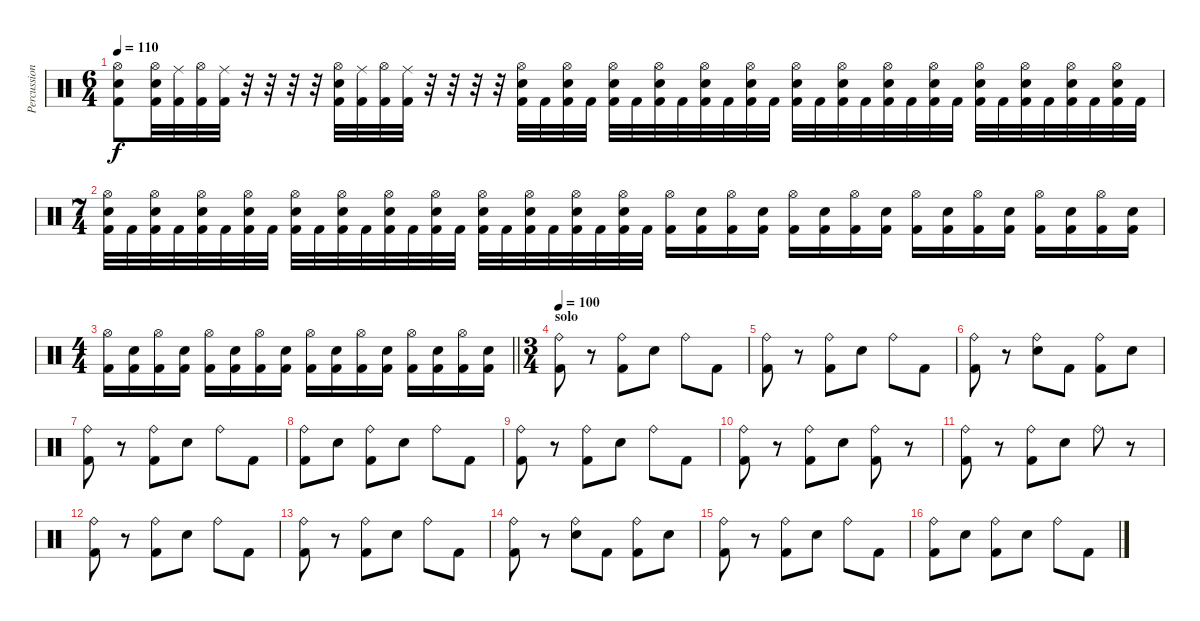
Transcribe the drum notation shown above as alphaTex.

\track ("Percussion" "Percussion") {instrument percussion}
\staff {score}
\articulation defaults
\ts (6 4)
\tempo 110
\clef neutral
\ks c
("Hi-Hat (open)" "Electric Snare (hit)" "Kick (hit) 2").8{dy f} ("Hi-Hat (open)" "Electric Snare (hit)" "Kick (hit) 2").32 ("Ride (middle)" "Kick (hit) 2").32 ("Hi-Hat (open)" "Kick (hit) 2").32 ("Ride (middle)" "Kick (hit) 2").32 r.32 r.32 r.32 r.32 ("Hi-Hat (open)" "Electric Snare (hit)" "Kick (hit) 2").32 ("Ride (middle)" "Kick (hit) 2").32 ("Hi-Hat (open)" "Kick (hit) 2").32 ("Ride (middle)" "Kick (hit) 2").32 r.32 r.32 r.32 r.32 ("Hi-Hat (open)" "Electric Snare (hit)" "Kick (hit) 2").32 "Kick (hit) 2".32 ("Hi-Hat (open)" "Electric Snare (hit)" "Kick (hit) 2").32 "Kick (hit) 2".32 ("Hi-Hat (open)" "Electric Snare (hit)" "Kick (hit) 2").32 "Kick (hit) 2".32 ("Hi-Hat (open)" "Electric Snare (hit)" "Kick (hit) 2").32 "Kick (hit) 2".32 ("Hi-Hat (open)" "Electric Snare (hit)" "Kick (hit) 2").32 "Kick (hit) 2".32 ("Hi-Hat (open)" "Electric Snare (hit)" "Kick (hit) 2").32 "Kick (hit) 2".32 ("Hi-Hat (open)" "Electric Snare (hit)" "Kick (hit) 2").32 "Kick (hit) 2".32 ("Hi-Hat (open)" "Electric Snare (hit)" "Kick (hit) 2").32 "Kick (hit) 2".32 ("Hi-Hat (open)" "Electric Snare (hit)" "Kick (hit) 2").32 "Kick (hit) 2".32 ("Hi-Hat (open)" "Electric Snare (hit)" "Kick (hit) 2").32 "Kick (hit) 2".32 ("Hi-Hat (open)" "Electric Snare (hit)" "Kick (hit) 2").32 "Kick (hit) 2".32 ("Hi-Hat (open)" "Electric Snare (hit)" "Kick (hit) 2").32 "Kick (hit) 2".32 ("Hi-Hat (open)" "Electric Snare (hit)" "Kick (hit) 2").32 "Kick (hit) 2".32 ("Hi-Hat (open)" "Electric Snare (hit)" "Kick (hit) 2").32 "Kick (hit) 2".32 |
\ts (7 4)
("Hi-Hat (open)" "Electric Snare (hit)" "Kick (hit) 2").32 "Kick (hit) 2".32 ("Hi-Hat (open)" "Electric Snare (hit)" "Kick (hit) 2").32 "Kick (hit) 2".32 ("Hi-Hat (open)" "Electric Snare (hit)" "Kick (hit) 2").32 "Kick (hit) 2".32 ("Hi-Hat (open)" "Electric Snare (hit)" "Kick (hit) 2").32 "Kick (hit) 2".32 ("Hi-Hat (open)" "Electric Snare (hit)" "Kick (hit) 2").32 "Kick (hit) 2".32 ("Hi-Hat (open)" "Electric Snare (hit)" "Kick (hit) 2").32 "Kick (hit) 2".32 ("Hi-Hat (open)" "Electric Snare (hit)" "Kick (hit) 2").32 "Kick (hit) 2".32 ("Hi-Hat (open)" "Electric Snare (hit)" "Kick (hit) 2").32 "Kick (hit) 2".32 ("Hi-Hat (open)" "Electric Snare (hit)" "Kick (hit) 2").32 "Kick (hit) 2".32 ("Hi-Hat (open)" "Electric Snare (hit)" "Kick (hit) 2").32 "Kick (hit) 2".32 ("Hi-Hat (open)" "Electric Snare (hit)" "Kick (hit) 2").32 "Kick (hit) 2".32 ("Hi-Hat (open)" "Electric Snare (hit)" "Kick (hit) 2").32 "Kick (hit) 2".32 ("Hi-Hat (open)" "Kick (hit) 2").16 ("Electric Snare (hit)" "Kick (hit) 2").16 ("Hi-Hat (open)" "Kick (hit) 2").16 ("Electric Snare (hit)" "Kick (hit) 2").16 ("Hi-Hat (open)" "Kick (hit) 2").16 ("Electric Snare (hit)" "Kick (hit) 2").16 ("Hi-Hat (open)" "Kick (hit) 2").16 ("Electric Snare (hit)" "Kick (hit) 2").16 ("Hi-Hat (open)" "Kick (hit) 2").16 ("Electric Snare (hit)" "Kick (hit) 2").16 ("Hi-Hat (open)" "Kick (hit) 2").16 ("Electric Snare (hit)" "Kick (hit) 2").16 ("Hi-Hat (open)" "Kick (hit) 2").16 ("Electric Snare (hit)" "Kick (hit) 2").16 ("Hi-Hat (open)" "Kick (hit) 2").16 ("Electric Snare (hit)" "Kick (hit) 2").16 |
\ts (4 4)
\barLineRight lightlight
("Hi-Hat (open)" "Kick (hit) 2").16 ("Electric Snare (hit)" "Kick (hit) 2").16 ("Hi-Hat (open)" "Kick (hit) 2").16 ("Electric Snare (hit)" "Kick (hit) 2").16 ("Hi-Hat (open)" "Kick (hit) 2").16 ("Electric Snare (hit)" "Kick (hit) 2").16 ("Hi-Hat (open)" "Kick (hit) 2").16 ("Electric Snare (hit)" "Kick (hit) 2").16 ("Hi-Hat (open)" "Kick (hit) 2").16 ("Electric Snare (hit)" "Kick (hit) 2").16 ("Hi-Hat (open)" "Kick (hit) 2").16 ("Electric Snare (hit)" "Kick (hit) 2").16 ("Hi-Hat (open)" "Kick (hit) 2").16 ("Electric Snare (hit)" "Kick (hit) 2").16 ("Hi-Hat (open)" "Kick (hit) 2").16 ("Electric Snare (hit)" "Kick (hit) 2").16 |
\ts (3 4)
\section ("" "solo")
\tempo 100
("Kick (hit) 2" "Ride (bell)").8 r.8 ("Kick (hit) 2" "Ride (bell)").8 "Electric Snare (hit)".8 "Ride (bell)".8 "Kick (hit) 2".8 |
("Kick (hit) 2" "Ride (bell)").8 r.8 ("Kick (hit) 2" "Ride (bell)").8 "Electric Snare (hit)".8 "Ride (bell)".8 "Kick (hit) 2".8 |
("Kick (hit) 2" "Ride (bell)").8 r.8 ("Electric Snare (hit)" "Ride (bell)").8 "Kick (hit) 2".8 ("Kick (hit) 2" "Ride (bell)").8 "Electric Snare (hit)".8 |
("Kick (hit) 2" "Ride (bell)").8 r.8 ("Kick (hit) 2" "Ride (bell)").8 "Electric Snare (hit)".8 "Ride (bell)".8 "Kick (hit) 2".8 |
("Kick (hit) 2" "Ride (bell)").8 "Electric Snare (hit)".8 ("Kick (hit) 2" "Ride (bell)").8 "Electric Snare (hit)".8 "Ride (bell)".8 "Kick (hit) 2".8 |
("Kick (hit) 2" "Ride (bell)").8 r.8 ("Kick (hit) 2" "Ride (bell)").8 "Electric Snare (hit)".8 "Ride (bell)".8 "Kick (hit) 2".8 |
("Kick (hit) 2" "Ride (bell)").8 r.8 ("Kick (hit) 2" "Ride (bell)").8 "Electric Snare (hit)".8 ("Kick (hit) 2" "Ride (bell)").8 r.8 |
("Kick (hit) 2" "Ride (bell)").8 r.8 ("Kick (hit) 2" "Ride (bell)").8 "Electric Snare (hit)".8 "Ride (bell)".8 r.8 |
("Kick (hit) 2" "Ride (bell)").8 r.8 ("Kick (hit) 2" "Ride (bell)").8 "Electric Snare (hit)".8 "Ride (bell)".8 "Kick (hit) 2".8 |
("Kick (hit) 2" "Ride (bell)").8 r.8 ("Kick (hit) 2" "Ride (bell)").8 "Electric Snare (hit)".8 "Ride (bell)".8 "Kick (hit) 2".8 |
("Kick (hit) 2" "Ride (bell)").8 r.8 ("Electric Snare (hit)" "Ride (bell)").8 "Kick (hit) 2".8 ("Kick (hit) 2" "Ride (bell)").8 "Electric Snare (hit)".8 |
("Kick (hit) 2" "Ride (bell)").8 r.8 ("Kick (hit) 2" "Ride (bell)").8 "Electric Snare (hit)".8 "Ride (bell)".8 "Kick (hit) 2".8 |
("Kick (hit) 2" "Ride (bell)").8 "Electric Snare (hit)".8 ("Kick (hit) 2" "Ride (bell)").8 "Electric Snare (hit)".8 "Ride (bell)".8 "Kick (hit) 2".8
